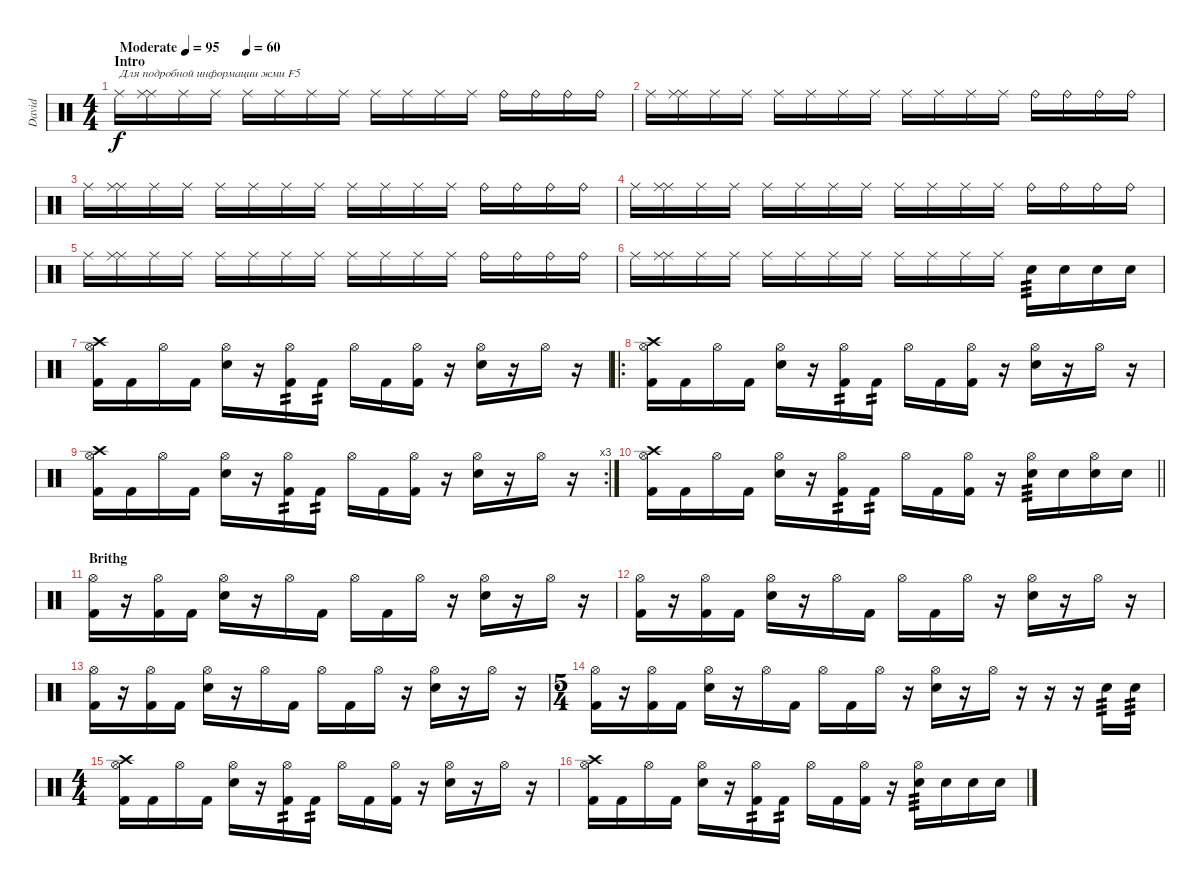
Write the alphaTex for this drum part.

\track ("David" "David") {instrument percussion}
\staff {score}
\articulation defaults
\ts (4 4)
\section ("" "Intro")
\tempo (95 "Moderate")
\tempo 40
\tempo (60 0.25)
\tempo (95 "Moderate")
\clef neutral
\ks c "Ride (middle)".16{txt "Для подробной информации жми F5" dy f volume 2}
("Ride (middle)" "Ride (middle)").16{volume 13} "Ride (middle)".16 "Ride (middle)".16 "Ride (middle)".16 "Ride (middle)".16 "Ride (middle)".16 "Ride (middle)".16 "Ride (middle)".16 "Ride (middle)".16 "Ride (middle)".16 "Ride (middle)".16 "Ride (bell)".16 "Ride (bell)".16 "Ride (bell)".16 "Ride (bell)".16 |
"Ride (middle)".16 ("Ride (middle)" "Ride (middle)").16 "Ride (middle)".16 "Ride (middle)".16 "Ride (middle)".16 "Ride (middle)".16 "Ride (middle)".16 "Ride (middle)".16 "Ride (middle)".16 "Ride (middle)".16 "Ride (middle)".16 "Ride (middle)".16 "Ride (bell)".16 "Ride (bell)".16 "Ride (bell)".16 "Ride (bell)".16 |
"Ride (middle)".16 ("Ride (middle)" "Ride (middle)").16 "Ride (middle)".16 "Ride (middle)".16 "Ride (middle)".16 "Ride (middle)".16 "Ride (middle)".16 "Ride (middle)".16 "Ride (middle)".16 "Ride (middle)".16 "Ride (middle)".16 "Ride (middle)".16 "Ride (bell)".16 "Ride (bell)".16 "Ride (bell)".16 "Ride (bell)".16 |
"Ride (middle)".16 ("Ride (middle)" "Ride (middle)").16 "Ride (middle)".16 "Ride (middle)".16 "Ride (middle)".16 "Ride (middle)".16 "Ride (middle)".16 "Ride (middle)".16 "Ride (middle)".16 "Ride (middle)".16 "Ride (middle)".16 "Ride (middle)".16 "Ride (bell)".16 "Ride (bell)".16 "Ride (bell)".16 "Ride (bell)".16 |
"Ride (middle)".16 ("Ride (middle)" "Ride (middle)").16 "Ride (middle)".16 "Ride (middle)".16 "Ride (middle)".16 "Ride (middle)".16 "Ride (middle)".16 "Ride (middle)".16 "Ride (middle)".16 "Ride (middle)".16 "Ride (middle)".16 "Ride (middle)".16 "Ride (bell)".16 "Ride (bell)".16 "Ride (bell)".16 "Ride (bell)".16 |
"Ride (middle)".16 ("Ride (middle)" "Ride (middle)").16 "Ride (middle)".16 "Ride (middle)".16 "Ride (middle)".16 "Ride (middle)".16 "Ride (middle)".16 "Ride (middle)".16 "Ride (middle)".16 "Ride (middle)".16 "Ride (middle)".16 "Ride (middle)".16 "Snare (hit) 2".16{tp 3} "Snare (hit) 2".16 "Snare (hit) 2".16 "Snare (hit) 2".16 |
("Hi-Hat (open)" "Crash high (hit)" "Kick (hit) 2").16 "Kick (hit) 2".16 "Hi-Hat (open)".16 "Kick (hit) 2".16 ("Hi-Hat (open)" "Snare (hit) 2").16 r.16 ("Hi-Hat (open)" "Kick (hit) 2").16{tp 2} "Kick (hit) 2".16{tp 2} "Hi-Hat (open)".16 "Kick (hit) 2".16 ("Hi-Hat (open)" "Kick (hit) 2").16 r.16 ("Hi-Hat (open)" "Snare (hit) 2").16 r.16 "Hi-Hat (open)".16 r.16 |
\ro
("Hi-Hat (open)" "Crash high (hit)" "Kick (hit) 2").16 "Kick (hit) 2".16 "Hi-Hat (open)".16 "Kick (hit) 2".16 ("Hi-Hat (open)" "Snare (hit) 2").16 r.16 ("Hi-Hat (open)" "Kick (hit) 2").16{tp 2} "Kick (hit) 2".16{tp 2} "Hi-Hat (open)".16 "Kick (hit) 2".16 ("Hi-Hat (open)" "Kick (hit) 2").16 r.16 ("Hi-Hat (open)" "Snare (hit) 2").16 r.16 "Hi-Hat (open)".16 r.16 |
\rc 3
("Hi-Hat (open)" "Crash high (hit)" "Kick (hit) 2").16 "Kick (hit) 2".16 "Hi-Hat (open)".16 "Kick (hit) 2".16 ("Hi-Hat (open)" "Snare (hit) 2").16 r.16 ("Hi-Hat (open)" "Kick (hit) 2").16{tp 2} "Kick (hit) 2".16{tp 2} "Hi-Hat (open)".16 "Kick (hit) 2".16 ("Hi-Hat (open)" "Kick (hit) 2").16 r.16 ("Hi-Hat (open)" "Snare (hit) 2").16 r.16 "Hi-Hat (open)".16 r.16 |
\barLineRight lightlight
("Hi-Hat (open)" "Crash high (hit)" "Kick (hit) 2").16 "Kick (hit) 2".16 "Hi-Hat (open)".16 "Kick (hit) 2".16 ("Hi-Hat (open)" "Snare (hit) 2").16 r.16 ("Hi-Hat (open)" "Kick (hit) 2").16{tp 2} "Kick (hit) 2".16{tp 2} "Hi-Hat (open)".16 "Kick (hit) 2".16 ("Hi-Hat (open)" "Kick (hit) 2").16 r.16 ("Hi-Hat (open)" "Snare (hit) 2").16{tp 3} "Snare (hit) 2".16 ("Hi-Hat (open)" "Snare (hit) 2").16 "Snare (hit) 2".16 |
\section ("" "Brithg")
("Hi-Hat (open)" "Kick (hit) 2").16 r.16 ("Hi-Hat (open)" "Kick (hit) 2").16 "Kick (hit) 2".16 ("Hi-Hat (open)" "Snare (hit) 2").16 r.16 "Hi-Hat (open)".16 "Kick (hit) 2".16 "Hi-Hat (open)".16 "Kick (hit) 2".16 "Hi-Hat (open)".16 r.16 ("Hi-Hat (open)" "Snare (hit) 2").16 r.16 "Hi-Hat (open)".16 r.16 |
("Hi-Hat (open)" "Kick (hit) 2").16 r.16 ("Hi-Hat (open)" "Kick (hit) 2").16 "Kick (hit) 2".16 ("Hi-Hat (open)" "Snare (hit) 2").16 r.16 "Hi-Hat (open)".16 "Kick (hit) 2".16 "Hi-Hat (open)".16 "Kick (hit) 2".16 "Hi-Hat (open)".16 r.16 ("Hi-Hat (open)" "Snare (hit) 2").16 r.16 "Hi-Hat (open)".16 r.16 |
("Hi-Hat (open)" "Kick (hit) 2").16 r.16 ("Hi-Hat (open)" "Kick (hit) 2").16 "Kick (hit) 2".16 ("Hi-Hat (open)" "Snare (hit) 2").16 r.16 "Hi-Hat (open)".16 "Kick (hit) 2".16 "Hi-Hat (open)".16 "Kick (hit) 2".16 "Hi-Hat (open)".16 r.16 ("Hi-Hat (open)" "Snare (hit) 2").16 r.16 "Hi-Hat (open)".16 r.16 |
\ts (5 4)
("Hi-Hat (open)" "Kick (hit) 2").16 r.16 ("Hi-Hat (open)" "Kick (hit) 2").16 "Kick (hit) 2".16 ("Hi-Hat (open)" "Snare (hit) 2").16 r.16 "Hi-Hat (open)".16 "Kick (hit) 2".16 "Hi-Hat (open)".16 "Kick (hit) 2".16 "Hi-Hat (open)".16 r.16 ("Hi-Hat (open)" "Snare (hit) 2").16 r.16 "Hi-Hat (open)".16 r.16 r.16 r.16 "Snare (hit) 2".16{tp 3} "Snare (hit) 2".16{tp 3} |
\ts (4 4)
("Hi-Hat (open)" "Crash high (hit)" "Kick (hit) 2").16 "Kick (hit) 2".16 "Hi-Hat (open)".16 "Kick (hit) 2".16 ("Hi-Hat (open)" "Snare (hit) 2").16 r.16 ("Hi-Hat (open)" "Kick (hit) 2").16{tp 2} "Kick (hit) 2".16{tp 2} "Hi-Hat (open)".16 "Kick (hit) 2".16 ("Hi-Hat (open)" "Kick (hit) 2").16 r.16 ("Hi-Hat (open)" "Snare (hit) 2").16 r.16 "Hi-Hat (open)".16 r.16 |
("Hi-Hat (open)" "Crash high (hit)" "Kick (hit) 2").16 "Kick (hit) 2".16 "Hi-Hat (open)".16 "Kick (hit) 2".16 ("Hi-Hat (open)" "Snare (hit) 2").16 r.16 ("Hi-Hat (open)" "Kick (hit) 2").16{tp 2} "Kick (hit) 2".16{tp 2} "Hi-Hat (open)".16 "Kick (hit) 2".16 ("Hi-Hat (open)" "Kick (hit) 2").16 r.16 ("Hi-Hat (open)" "Snare (hit) 2").16{tp 3} "Snare (hit) 2".16 "Snare (hit) 2".16 "Snare (hit) 2".16
